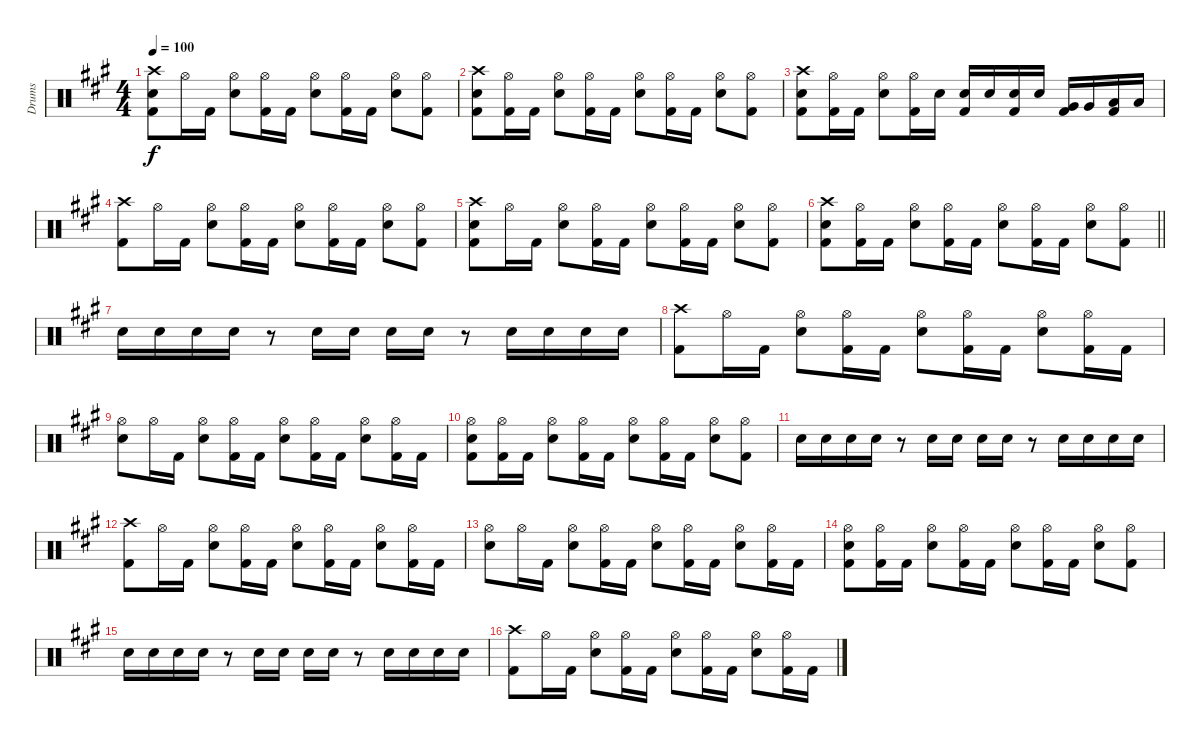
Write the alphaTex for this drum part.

\track ("Drums" "Drums") {instrument percussion}
\staff {score}
\articulation defaults
\ts (4 4)
\tempo 100
\clef neutral
\ks f#minor
("Crash high (hit)" "Snare (hit) 2" "Kick (hit) 2").8{dy f} "Hi-Hat (open)".16 "Kick (hit) 2".16 ("Hi-Hat (open)" "Snare (hit) 2").8 ("Hi-Hat (open)" "Kick (hit) 2").16 "Kick (hit) 2".16 ("Hi-Hat (open)" "Snare (hit) 2").8 ("Hi-Hat (open)" "Kick (hit) 2").16 "Kick (hit) 2".16 ("Hi-Hat (open)" "Snare (hit) 2").8 ("Hi-Hat (open)" "Kick (hit) 2").8 |
("Crash high (hit)" "Snare (hit) 2" "Kick (hit) 2").8 ("Hi-Hat (open)" "Kick (hit) 2").16 "Kick (hit) 2".16 ("Hi-Hat (open)" "Snare (hit) 2").8 ("Hi-Hat (open)" "Kick (hit) 2").16 "Kick (hit) 2".16 ("Hi-Hat (open)" "Snare (hit) 2").8 ("Hi-Hat (open)" "Kick (hit) 2").16 "Kick (hit) 2".16 ("Hi-Hat (open)" "Snare (hit) 2").8 ("Hi-Hat (open)" "Kick (hit) 2").8 |
("Crash high (hit)" "Snare (hit) 2" "Kick (hit) 2").8 ("Hi-Hat (open)" "Kick (hit) 2").16 "Kick (hit) 2".16 ("Hi-Hat (open)" "Snare (hit) 2").8 ("Hi-Hat (open)" "Kick (hit) 2").16 "Snare (hit) 2".16 ("Snare (hit) 2" "Kick (hit) 2").16 "Snare (hit) 2".16 ("Snare (hit) 2" "Kick (hit) 2").16 "Snare (hit) 2".16 ("Very Low Tom (hit)" "Kick (hit) 2").16 "Very Low Tom (hit)".16 ("Low Floor Tom (hit)" "Kick (hit) 2").16 "Low Floor Tom (hit)".16 |
("Crash high (hit)" "Kick (hit) 2").8 "Hi-Hat (open)".16 "Kick (hit) 2".16 ("Hi-Hat (open)" "Snare (hit) 2").8 ("Hi-Hat (open)" "Kick (hit) 2").16 "Kick (hit) 2".16 ("Hi-Hat (open)" "Snare (hit) 2").8 ("Hi-Hat (open)" "Kick (hit) 2").16 "Kick (hit) 2".16 ("Hi-Hat (open)" "Snare (hit) 2").8 ("Hi-Hat (open)" "Kick (hit) 2").8 |
("Crash high (hit)" "Snare (hit) 2" "Kick (hit) 2").8 "Hi-Hat (open)".16 "Kick (hit) 2".16 ("Hi-Hat (open)" "Snare (hit) 2").8 ("Hi-Hat (open)" "Kick (hit) 2").16 "Kick (hit) 2".16 ("Hi-Hat (open)" "Snare (hit) 2").8 ("Hi-Hat (open)" "Kick (hit) 2").16 "Kick (hit) 2".16 ("Hi-Hat (open)" "Snare (hit) 2").8 ("Hi-Hat (open)" "Kick (hit) 2").8 |
\barLineRight lightlight
("Crash high (hit)" "Snare (hit) 2" "Kick (hit) 2").8 ("Hi-Hat (open)" "Kick (hit) 2").16 "Kick (hit) 2".16 ("Hi-Hat (open)" "Snare (hit) 2").8 ("Hi-Hat (open)" "Kick (hit) 2").16 "Kick (hit) 2".16 ("Hi-Hat (open)" "Snare (hit) 2").8 ("Hi-Hat (open)" "Kick (hit) 2").16 "Kick (hit) 2".16 ("Hi-Hat (open)" "Snare (hit) 2").8 ("Hi-Hat (open)" "Kick (hit) 2").8 |
"Snare (hit) 2".16 "Snare (hit) 2".16 "Snare (hit) 2".16 "Snare (hit) 2".16 r.8 "Snare (hit) 2".16 "Snare (hit) 2".16 "Snare (hit) 2".16 "Snare (hit) 2".16 r.8 "Snare (hit) 2".16 "Snare (hit) 2".16 "Snare (hit) 2".16 "Snare (hit) 2".16 |
("Crash high (hit)" "Kick (hit) 2").8 "Hi-Hat (open)".16 "Kick (hit) 2".16 ("Hi-Hat (open)" "Snare (hit) 2").8 ("Hi-Hat (open)" "Kick (hit) 2").16 "Kick (hit) 2".16 ("Hi-Hat (open)" "Snare (hit) 2").8 ("Hi-Hat (open)" "Kick (hit) 2").16 "Kick (hit) 2".16 ("Hi-Hat (open)" "Snare (hit) 2").8 ("Hi-Hat (open)" "Kick (hit) 2").16 "Kick (hit) 2".16 |
("Hi-Hat (open)" "Snare (hit) 2").8 "Hi-Hat (open)".16 "Kick (hit) 2".16 ("Hi-Hat (open)" "Snare (hit) 2").8 ("Hi-Hat (open)" "Kick (hit) 2").16 "Kick (hit) 2".16 ("Hi-Hat (open)" "Snare (hit) 2").8 ("Hi-Hat (open)" "Kick (hit) 2").16 "Kick (hit) 2".16 ("Hi-Hat (open)" "Snare (hit) 2").8 ("Hi-Hat (open)" "Kick (hit) 2").16 "Kick (hit) 2".16 |
("Hi-Hat (open)" "Snare (hit) 2" "Kick (hit) 2").8 ("Hi-Hat (open)" "Kick (hit) 2").16 "Kick (hit) 2".16 ("Hi-Hat (open)" "Snare (hit) 2").8 ("Hi-Hat (open)" "Kick (hit) 2").16 "Kick (hit) 2".16 ("Hi-Hat (open)" "Snare (hit) 2").8 ("Hi-Hat (open)" "Kick (hit) 2").16 "Kick (hit) 2".16 ("Hi-Hat (open)" "Snare (hit) 2").8 ("Hi-Hat (open)" "Kick (hit) 2").8 |
"Snare (hit) 2".16 "Snare (hit) 2".16 "Snare (hit) 2".16 "Snare (hit) 2".16 r.8 "Snare (hit) 2".16 "Snare (hit) 2".16 "Snare (hit) 2".16 "Snare (hit) 2".16 r.8 "Snare (hit) 2".16 "Snare (hit) 2".16 "Snare (hit) 2".16 "Snare (hit) 2".16 |
("Crash high (hit)" "Kick (hit) 2").8 "Hi-Hat (open)".16 "Kick (hit) 2".16 ("Hi-Hat (open)" "Snare (hit) 2").8 ("Hi-Hat (open)" "Kick (hit) 2").16 "Kick (hit) 2".16 ("Hi-Hat (open)" "Snare (hit) 2").8 ("Hi-Hat (open)" "Kick (hit) 2").16 "Kick (hit) 2".16 ("Hi-Hat (open)" "Snare (hit) 2").8 ("Hi-Hat (open)" "Kick (hit) 2").16 "Kick (hit) 2".16 |
("Hi-Hat (open)" "Snare (hit) 2").8 "Hi-Hat (open)".16 "Kick (hit) 2".16 ("Hi-Hat (open)" "Snare (hit) 2").8 ("Hi-Hat (open)" "Kick (hit) 2").16 "Kick (hit) 2".16 ("Hi-Hat (open)" "Snare (hit) 2").8 ("Hi-Hat (open)" "Kick (hit) 2").16 "Kick (hit) 2".16 ("Hi-Hat (open)" "Snare (hit) 2").8 ("Hi-Hat (open)" "Kick (hit) 2").16 "Kick (hit) 2".16 |
("Hi-Hat (open)" "Snare (hit) 2" "Kick (hit) 2").8 ("Hi-Hat (open)" "Kick (hit) 2").16 "Kick (hit) 2".16 ("Hi-Hat (open)" "Snare (hit) 2").8 ("Hi-Hat (open)" "Kick (hit) 2").16 "Kick (hit) 2".16 ("Hi-Hat (open)" "Snare (hit) 2").8 ("Hi-Hat (open)" "Kick (hit) 2").16 "Kick (hit) 2".16 ("Hi-Hat (open)" "Snare (hit) 2").8 ("Hi-Hat (open)" "Kick (hit) 2").8 |
"Snare (hit) 2".16 "Snare (hit) 2".16 "Snare (hit) 2".16 "Snare (hit) 2".16 r.8 "Snare (hit) 2".16 "Snare (hit) 2".16 "Snare (hit) 2".16 "Snare (hit) 2".16 r.8 "Snare (hit) 2".16 "Snare (hit) 2".16 "Snare (hit) 2".16 "Snare (hit) 2".16 |
("Crash high (hit)" "Kick (hit) 2").8 "Hi-Hat (open)".16 "Kick (hit) 2".16 ("Hi-Hat (open)" "Snare (hit) 2").8 ("Hi-Hat (open)" "Kick (hit) 2").16 "Kick (hit) 2".16 ("Hi-Hat (open)" "Snare (hit) 2").8 ("Hi-Hat (open)" "Kick (hit) 2").16 "Kick (hit) 2".16 ("Hi-Hat (open)" "Snare (hit) 2").8 ("Hi-Hat (open)" "Kick (hit) 2").16 "Kick (hit) 2".16
